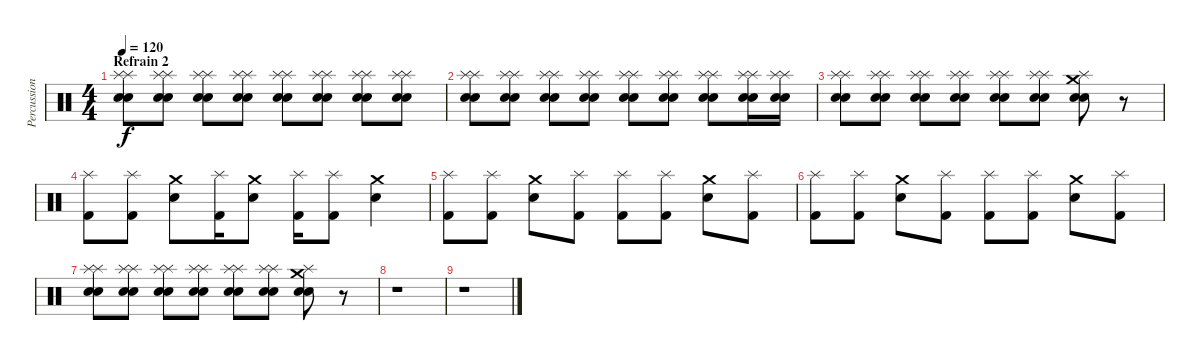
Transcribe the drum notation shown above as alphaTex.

\track ("Percussions" "Percussion") {instrument percussion}
\staff {score}
\articulation defaults
\ts (4 4)
\section ("" "Refrain 2")
\tempo 120
\clef neutral
\ks c
("Splash (hit)" "Splash (hit)" "Snare (hit) 2" "Snare (hit) 2").8{dy f volume 4} ("Splash (hit)" "Splash (hit)" "Snare (hit) 2" "Snare (hit) 2").8{volume 10} ("Splash (hit)" "Splash (hit)" "Snare (hit) 2" "Snare (hit) 2").8 ("Splash (hit)" "Splash (hit)" "Snare (hit) 2" "Snare (hit) 2").8 ("Splash (hit)" "Splash (hit)" "Snare (hit) 2" "Snare (hit) 2").8 ("Splash (hit)" "Splash (hit)" "Snare (hit) 2" "Snare (hit) 2").8 ("Splash (hit)" "Splash (hit)" "Snare (hit) 2" "Snare (hit) 2").8 ("Splash (hit)" "Splash (hit)" "Snare (hit) 2" "Snare (hit) 2").8 |
("Splash (hit)" "Splash (hit)" "Snare (hit) 2" "Snare (hit) 2").8 ("Splash (hit)" "Splash (hit)" "Snare (hit) 2" "Snare (hit) 2").8 ("Splash (hit)" "Splash (hit)" "Snare (hit) 2" "Snare (hit) 2").8 ("Splash (hit)" "Splash (hit)" "Snare (hit) 2" "Snare (hit) 2").8 ("Splash (hit)" "Splash (hit)" "Snare (hit) 2" "Snare (hit) 2").8 ("Splash (hit)" "Splash (hit)" "Snare (hit) 2" "Snare (hit) 2").8 ("Splash (hit)" "Splash (hit)" "Snare (hit) 2" "Snare (hit) 2").8 ("Splash (hit)" "Splash (hit)" "Snare (hit) 2" "Snare (hit) 2").16 ("Splash (hit)" "Splash (hit)" "Snare (hit) 2" "Snare (hit) 2").16 |
("Splash (hit)" "Splash (hit)" "Snare (hit) 2" "Snare (hit) 2").8 ("Splash (hit)" "Splash (hit)" "Snare (hit) 2" "Snare (hit) 2").8 ("Splash (hit)" "Splash (hit)" "Snare (hit) 2" "Snare (hit) 2").8 ("Splash (hit)" "Splash (hit)" "Snare (hit) 2" "Snare (hit) 2").8 ("Splash (hit)" "Splash (hit)" "Snare (hit) 2" "Snare (hit) 2").8 ("Splash (hit)" "Splash (hit)" "Snare (hit) 2" "Snare (hit) 2").8 ("Crash medium (hit)" "Splash (hit)" "Snare (hit) 2" "Snare (hit) 2").8 r.8 |
("Splash (hit)" "Kick (hit) 2").8 ("Splash (hit)" "Kick (hit) 2").8 ("Crash medium (hit)" "Snare (hit) 2").8 ("Splash (hit)" "Kick (hit) 2").16 ("Crash medium (hit)" "Snare (hit) 2").8 ("Splash (hit)" "Kick (hit) 2").16 ("Splash (hit)" "Kick (hit) 2").8 ("Crash medium (hit)" "Snare (hit) 2").4 |
("Splash (hit)" "Kick (hit) 2").8 ("Splash (hit)" "Kick (hit) 2").8 ("Crash medium (hit)" "Snare (hit) 2").8 ("Splash (hit)" "Kick (hit) 2").8 ("Splash (hit)" "Kick (hit) 2").8 ("Splash (hit)" "Kick (hit) 2").8 ("Crash medium (hit)" "Snare (hit) 2").8 ("Splash (hit)" "Kick (hit) 2").8 |
("Splash (hit)" "Kick (hit) 2").8 ("Splash (hit)" "Kick (hit) 2").8 ("Crash medium (hit)" "Snare (hit) 2").8 ("Splash (hit)" "Kick (hit) 2").8 ("Splash (hit)" "Kick (hit) 2").8 ("Splash (hit)" "Kick (hit) 2").8 ("Crash medium (hit)" "Snare (hit) 2").8 ("Splash (hit)" "Kick (hit) 2").8 |
("Splash (hit)" "Splash (hit)" "Snare (hit) 2" "Snare (hit) 2").8 ("Splash (hit)" "Splash (hit)" "Snare (hit) 2" "Snare (hit) 2").8 ("Splash (hit)" "Splash (hit)" "Snare (hit) 2" "Snare (hit) 2").8 ("Splash (hit)" "Splash (hit)" "Snare (hit) 2" "Snare (hit) 2").8 ("Splash (hit)" "Splash (hit)" "Snare (hit) 2" "Snare (hit) 2").8 ("Splash (hit)" "Splash (hit)" "Snare (hit) 2" "Snare (hit) 2").8 ("Crash medium (hit)" "Splash (hit)" "Snare (hit) 2" "Snare (hit) 2").8 r.8 |
r.1 |
r.1
